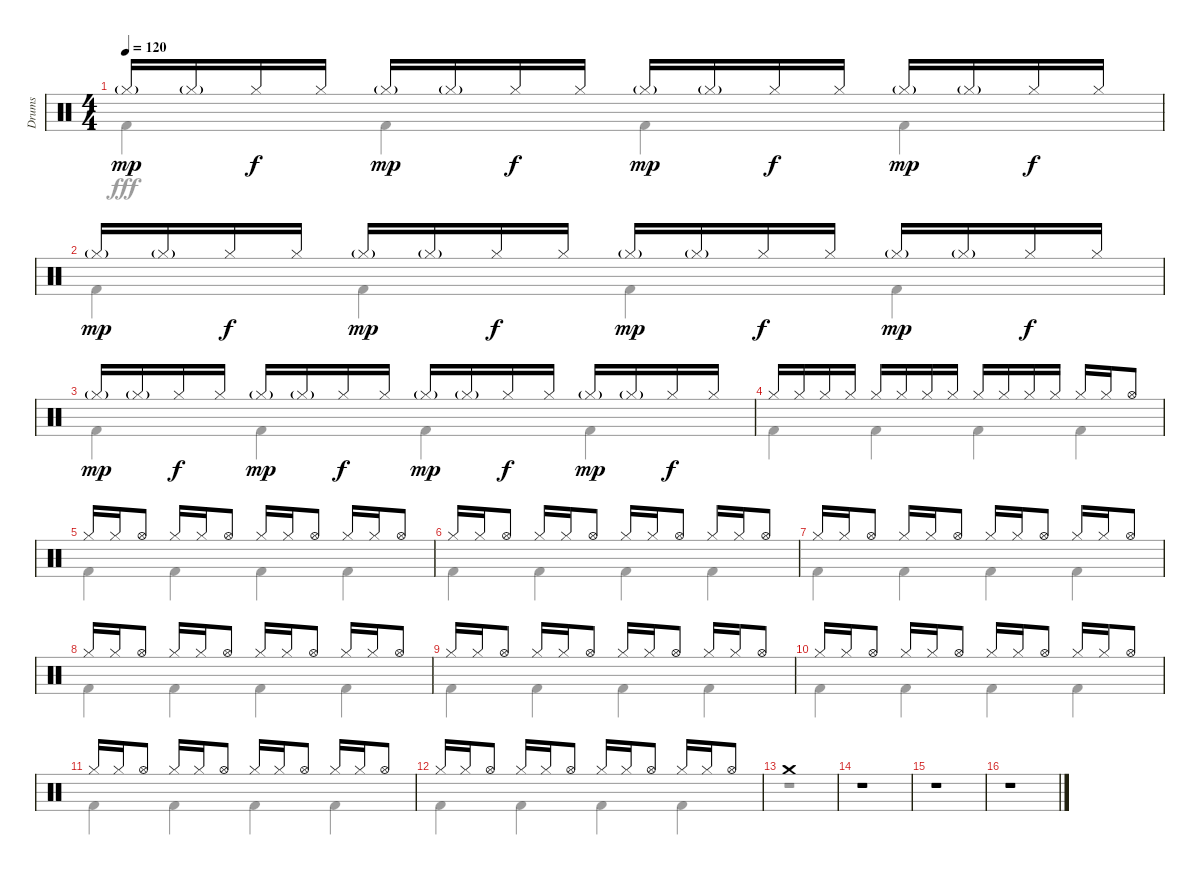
\track ("Drums" "Drums") {instrument percussion}
\staff {score}
\articulation defaults
\voice
\ts (4 4)
\tempo 120
\clef neutral
\ks c "Hi-Hat (closed)"{g}.16{dy mp} "Hi-Hat (closed)"{g}.16 "Hi-Hat (closed)".16{dy f} "Hi-Hat (closed)".16 "Hi-Hat (closed)"{g}.16{dy mp} "Hi-Hat (closed)"{g}.16 "Hi-Hat (closed)".16{dy f} "Hi-Hat (closed)".16 "Hi-Hat (closed)"{g}.16{dy mp} "Hi-Hat (closed)"{g}.16 "Hi-Hat (closed)".16{dy f} "Hi-Hat (closed)".16 "Hi-Hat (closed)"{g}.16{dy mp} "Hi-Hat (closed)"{g}.16 "Hi-Hat (closed)".16{dy f} "Hi-Hat (closed)".16
|
"Hi-Hat (closed)"{g}.16{dy mp} "Hi-Hat (closed)"{g}.16 "Hi-Hat (closed)".16{dy f} "Hi-Hat (closed)".16 "Hi-Hat (closed)"{g}.16{dy mp} "Hi-Hat (closed)"{g}.16 "Hi-Hat (closed)".16{dy f} "Hi-Hat (closed)".16 "Hi-Hat (closed)"{g}.16{dy mp} "Hi-Hat (closed)"{g}.16 "Hi-Hat (closed)".16{dy f} "Hi-Hat (closed)".16 "Hi-Hat (closed)"{g}.16{dy mp} "Hi-Hat (closed)"{g}.16 "Hi-Hat (closed)".16{dy f} "Hi-Hat (closed)".16 |
"Hi-Hat (closed)"{g}.16{dy mp} "Hi-Hat (closed)"{g}.16 "Hi-Hat (closed)".16{dy f} "Hi-Hat (closed)".16 "Hi-Hat (closed)"{g}.16{dy mp} "Hi-Hat (closed)"{g}.16 "Hi-Hat (closed)".16{dy f} "Hi-Hat (closed)".16 "Hi-Hat (closed)"{g}.16{dy mp} "Hi-Hat (closed)"{g}.16 "Hi-Hat (closed)".16{dy f} "Hi-Hat (closed)".16 "Hi-Hat (closed)"{g}.16{dy mp} "Hi-Hat (closed)"{g}.16 "Hi-Hat (closed)".16{dy f} "Hi-Hat (closed)".16 |
"Hi-Hat (closed)".16 "Hi-Hat (closed)".16 "Hi-Hat (closed)".16 "Hi-Hat (closed)".16 "Hi-Hat (closed)".16 "Hi-Hat (closed)".16 "Hi-Hat (closed)".16 "Hi-Hat (closed)".16 "Hi-Hat (closed)".16 "Hi-Hat (closed)".16 "Hi-Hat (closed)".16 "Hi-Hat (closed)".16 "Hi-Hat (closed)".16 "Hi-Hat (closed)".16 "Hi-Hat (open)".8 |
"Hi-Hat (closed)".16 "Hi-Hat (closed)".16 "Hi-Hat (open)".8 "Hi-Hat (closed)".16 "Hi-Hat (closed)".16 "Hi-Hat (open)".8 "Hi-Hat (closed)".16 "Hi-Hat (closed)".16 "Hi-Hat (open)".8 "Hi-Hat (closed)".16 "Hi-Hat (closed)".16 "Hi-Hat (open)".8 |
"Hi-Hat (closed)".16 "Hi-Hat (closed)".16 "Hi-Hat (open)".8 "Hi-Hat (closed)".16 "Hi-Hat (closed)".16 "Hi-Hat (open)".8 "Hi-Hat (closed)".16 "Hi-Hat (closed)".16 "Hi-Hat (open)".8 "Hi-Hat (closed)".16 "Hi-Hat (closed)".16 "Hi-Hat (open)".8 |
"Hi-Hat (closed)".16 "Hi-Hat (closed)".16 "Hi-Hat (open)".8 "Hi-Hat (closed)".16 "Hi-Hat (closed)".16 "Hi-Hat (open)".8 "Hi-Hat (closed)".16 "Hi-Hat (closed)".16 "Hi-Hat (open)".8 "Hi-Hat (closed)".16 "Hi-Hat (closed)".16 "Hi-Hat (open)".8 |
"Hi-Hat (closed)".16 "Hi-Hat (closed)".16 "Hi-Hat (open)".8 "Hi-Hat (closed)".16 "Hi-Hat (closed)".16 "Hi-Hat (open)".8 "Hi-Hat (closed)".16 "Hi-Hat (closed)".16 "Hi-Hat (open)".8 "Hi-Hat (closed)".16 "Hi-Hat (closed)".16 "Hi-Hat (open)".8 |
"Hi-Hat (closed)".16 "Hi-Hat (closed)".16 "Hi-Hat (open)".8 "Hi-Hat (closed)".16 "Hi-Hat (closed)".16 "Hi-Hat (open)".8 "Hi-Hat (closed)".16 "Hi-Hat (closed)".16 "Hi-Hat (open)".8 "Hi-Hat (closed)".16 "Hi-Hat (closed)".16 "Hi-Hat (open)".8 |
"Hi-Hat (closed)".16 "Hi-Hat (closed)".16 "Hi-Hat (open)".8 "Hi-Hat (closed)".16 "Hi-Hat (closed)".16 "Hi-Hat (open)".8 "Hi-Hat (closed)".16 "Hi-Hat (closed)".16 "Hi-Hat (open)".8 "Hi-Hat (closed)".16 "Hi-Hat (closed)".16 "Hi-Hat (open)".8 |
"Hi-Hat (closed)".16 "Hi-Hat (closed)".16 "Hi-Hat (open)".8 "Hi-Hat (closed)".16 "Hi-Hat (closed)".16 "Hi-Hat (open)".8 "Hi-Hat (closed)".16 "Hi-Hat (closed)".16 "Hi-Hat (open)".8 "Hi-Hat (closed)".16 "Hi-Hat (closed)".16 "Hi-Hat (open)".8 |
"Hi-Hat (closed)".16 "Hi-Hat (closed)".16 "Hi-Hat (open)".8 "Hi-Hat (closed)".16 "Hi-Hat (closed)".16 "Hi-Hat (open)".8 "Hi-Hat (closed)".16 "Hi-Hat (closed)".16 "Hi-Hat (open)".8 "Hi-Hat (closed)".16 "Hi-Hat (closed)".16 "Hi-Hat (open)".8 |
"Crash medium (hit)".1 |
r.1 |
r.1 |
r.1
\voice
\clef neutral
\ottava regular
\simile none
\ks c "Kick (hit) 2".4{dy fff} "Kick (hit) 2".4 "Kick (hit) 2".4 "Kick (hit) 2".4
|
"Kick (hit) 2".4 "Kick (hit) 2".4 "Kick (hit) 2".4 "Kick (hit) 2".4 |
"Kick (hit) 2".4 "Kick (hit) 2".4 "Kick (hit) 2".4 "Kick (hit) 2".4 |
"Kick (hit) 2".4 "Kick (hit) 2".4 "Kick (hit) 2".4 "Kick (hit) 2".4 |
"Kick (hit) 2".4 "Kick (hit) 2".4 "Kick (hit) 2".4 "Kick (hit) 2".4 |
"Kick (hit) 2".4 "Kick (hit) 2".4 "Kick (hit) 2".4 "Kick (hit) 2".4 |
"Kick (hit) 2".4 "Kick (hit) 2".4 "Kick (hit) 2".4 "Kick (hit) 2".4 |
"Kick (hit) 2".4 "Kick (hit) 2".4 "Kick (hit) 2".4 "Kick (hit) 2".4 |
"Kick (hit) 2".4 "Kick (hit) 2".4 "Kick (hit) 2".4 "Kick (hit) 2".4 |
"Kick (hit) 2".4 "Kick (hit) 2".4 "Kick (hit) 2".4 "Kick (hit) 2".4 |
"Kick (hit) 2".4 "Kick (hit) 2".4 "Kick (hit) 2".4 "Kick (hit) 2".4 |
"Kick (hit) 2".4 "Kick (hit) 2".4 "Kick (hit) 2".4 "Kick (hit) 2".4 |
r.1 |
r.1 |
r.1 |
r.1
